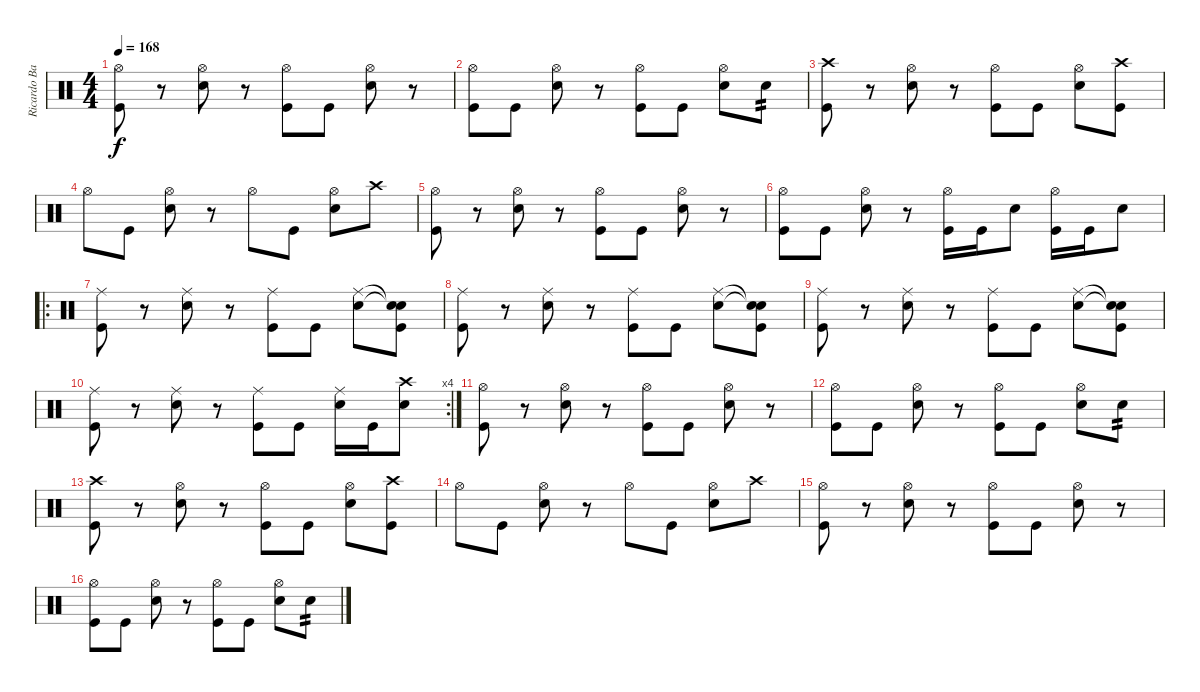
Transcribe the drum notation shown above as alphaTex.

\track ("Ricardo Barrenechea" "Ricardo Ba") {instrument percussion}
\staff {score}
\articulation defaults
\ts (4 4)
\tempo 168
\clef neutral
\ks c
("Hi-Hat (open)" "Kick (hit)").8{dy f} r.8 ("Hi-Hat (open)" "Snare (hit) 2").8 r.8 ("Hi-Hat (open)" "Kick (hit)").8 "Kick (hit)".8 ("Hi-Hat (open)" "Snare (hit) 2").8 r.8 |
("Hi-Hat (open)" "Kick (hit)").8 "Kick (hit)".8 ("Hi-Hat (open)" "Snare (hit) 2").8 r.8 ("Hi-Hat (open)" "Kick (hit)").8 "Kick (hit)".8 ("Hi-Hat (open)" "Snare (hit) 2").8 "Snare (hit) 2".8{tp 2} |
("Crash high (hit)" "Kick (hit)").8 r.8 ("Hi-Hat (open)" "Snare (hit) 2").8 r.8 ("Hi-Hat (open)" "Kick (hit)").8 "Kick (hit)".8 ("Hi-Hat (open)" "Snare (hit) 2").8 ("Crash high (hit)" "Kick (hit)").8 |
"Hi-Hat (open)".8 "Kick (hit)".8 ("Hi-Hat (open)" "Snare (hit) 2").8 r.8 "Hi-Hat (open)".8 "Kick (hit)".8 ("Hi-Hat (open)" "Snare (hit) 2").8 "Crash high (hit)".8 |
("Hi-Hat (open)" "Kick (hit)").8 r.8 ("Hi-Hat (open)" "Snare (hit) 2").8 r.8 ("Hi-Hat (open)" "Kick (hit)").8 "Kick (hit)".8 ("Hi-Hat (open)" "Snare (hit) 2").8 r.8 |
("Hi-Hat (open)" "Kick (hit)").8 "Kick (hit)".8 ("Hi-Hat (open)" "Snare (hit) 2").8 r.8 ("Hi-Hat (open)" "Kick (hit)").16 "Kick (hit)".16 "Snare (hit) 2".8 ("Hi-Hat (open)" "Kick (hit)").16 "Kick (hit)".16 "Snare (hit) 2".8 |
\ro
("Ride (middle)" "Kick (hit)").8 r.8 ("Ride (middle)" "Snare (hit) 2").8 r.8 ("Ride (middle)" "Kick (hit)").8 "Kick (hit)".8 ("Ride (middle)" "Snare (hit) 2").8 ("Snare (hit)"{t} "Snare (hit)"{t} "Kick (hit)").8 |
("Ride (middle)" "Kick (hit)").8 r.8 ("Ride (middle)" "Snare (hit) 2").8 r.8 ("Ride (middle)" "Kick (hit)").8 "Kick (hit)".8 ("Ride (middle)" "Snare (hit) 2").8 ("Snare (hit)"{t} "Snare (hit)"{t} "Kick (hit)").8 |
("Ride (middle)" "Kick (hit)").8 r.8 ("Ride (middle)" "Snare (hit) 2").8 r.8 ("Ride (middle)" "Kick (hit)").8 "Kick (hit)".8 ("Ride (middle)" "Snare (hit) 2").8 ("Snare (hit)"{t} "Snare (hit)"{t} "Kick (hit)").8 |
\rc 4
("Ride (middle)" "Kick (hit)").8 r.8 ("Ride (middle)" "Snare (hit) 2").8 r.8 ("Ride (middle)" "Kick (hit)").8 "Kick (hit)".8 ("Ride (middle)" "Snare (hit) 2").16 "Kick (hit)".16 ("Crash high (hit)" "Snare (hit) 2").8 |
("Hi-Hat (open)" "Kick (hit)").8 r.8 ("Hi-Hat (open)" "Snare (hit) 2").8 r.8 ("Hi-Hat (open)" "Kick (hit)").8 "Kick (hit)".8 ("Hi-Hat (open)" "Snare (hit) 2").8 r.8 |
("Hi-Hat (open)" "Kick (hit)").8 "Kick (hit)".8 ("Hi-Hat (open)" "Snare (hit) 2").8 r.8 ("Hi-Hat (open)" "Kick (hit)").8 "Kick (hit)".8 ("Hi-Hat (open)" "Snare (hit) 2").8 "Snare (hit) 2".8{tp 2} |
("Crash high (hit)" "Kick (hit)").8 r.8 ("Hi-Hat (open)" "Snare (hit) 2").8 r.8 ("Hi-Hat (open)" "Kick (hit)").8 "Kick (hit)".8 ("Hi-Hat (open)" "Snare (hit) 2").8 ("Crash high (hit)" "Kick (hit)").8 |
"Hi-Hat (open)".8 "Kick (hit)".8 ("Hi-Hat (open)" "Snare (hit) 2").8 r.8 "Hi-Hat (open)".8 "Kick (hit)".8 ("Hi-Hat (open)" "Snare (hit) 2").8 "Crash high (hit)".8 |
("Hi-Hat (open)" "Kick (hit)").8 r.8 ("Hi-Hat (open)" "Snare (hit) 2").8 r.8 ("Hi-Hat (open)" "Kick (hit)").8 "Kick (hit)".8 ("Hi-Hat (open)" "Snare (hit) 2").8 r.8 |
("Hi-Hat (open)" "Kick (hit)").8 "Kick (hit)".8 ("Hi-Hat (open)" "Snare (hit) 2").8 r.8 ("Hi-Hat (open)" "Kick (hit)").8 "Kick (hit)".8 ("Hi-Hat (open)" "Snare (hit) 2").8 "Snare (hit) 2".8{tp 2}
